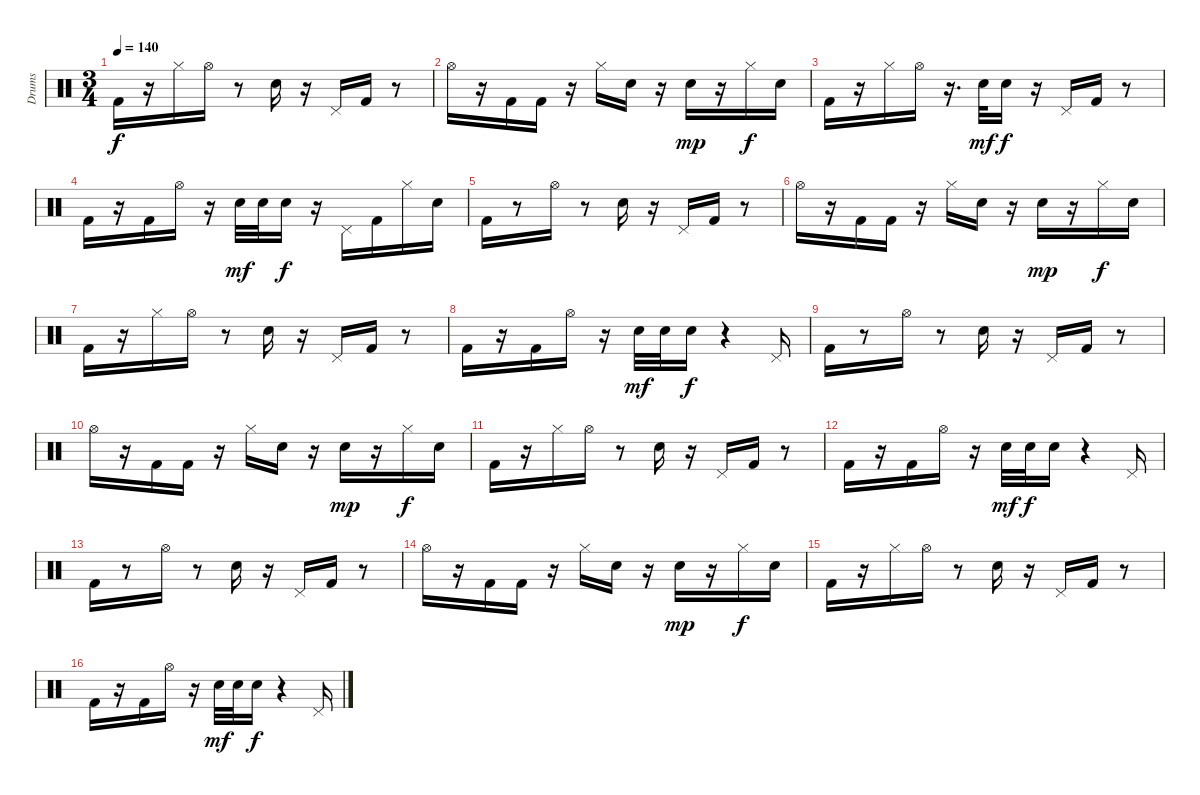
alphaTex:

\track ("Drums" "Drums") {instrument percussion}
\staff {score}
\articulation defaults
\ts (3 4)
\tempo 140
\clef neutral
\ks c "Kick (hit) 2".16{dy f}
r.16 "Hi-Hat (closed)".16 "Hi-Hat (open)".16 r.8 "Electric Snare (hit)".16 r.16 "Pedal Hi-Hat (hit)".16 "Kick (hit) 2".16 r.8 |
"Hi-Hat (open)".16 r.16 "Kick (hit) 2".16 "Kick (hit) 2".16 r.16 "Hi-Hat (closed)".16 "Electric Snare (hit)".16 r.16 "Electric Snare (hit)".16{dy mp} r.16 "Hi-Hat (closed)".16{dy f} "Electric Snare (hit)".16 |
"Kick (hit) 2".16 r.16 "Hi-Hat (closed)".16 "Hi-Hat (open)".16 r.16{d} "Electric Snare (hit)".32{dy mf} "Electric Snare (hit)".16{dy f} r.16 "Pedal Hi-Hat (hit)".16 "Kick (hit) 2".16 r.8 |
"Kick (hit) 2".16 r.16 "Kick (hit) 2".16 "Hi-Hat (open)".16 r.16 "Electric Snare (hit)".32{dy mf} "Electric Snare (hit)".32 "Electric Snare (hit)".16{dy f} r.16 "Pedal Hi-Hat (hit)".16 "Kick (hit) 2".16 "Hi-Hat (closed)".16 "Electric Snare (hit)".16 |
"Kick (hit) 2".16 r.8 "Hi-Hat (open)".16 r.8 "Electric Snare (hit)".16 r.16 "Pedal Hi-Hat (hit)".16 "Kick (hit) 2".16 r.8 |
"Hi-Hat (open)".16 r.16 "Kick (hit) 2".16 "Kick (hit) 2".16 r.16 "Hi-Hat (closed)".16 "Electric Snare (hit)".16 r.16 "Electric Snare (hit)".16{dy mp} r.16 "Hi-Hat (closed)".16{dy f} "Electric Snare (hit)".16 |
"Kick (hit) 2".16 r.16 "Hi-Hat (closed)".16 "Hi-Hat (open)".16 r.8 "Electric Snare (hit)".16 r.16 "Pedal Hi-Hat (hit)".16 "Kick (hit) 2".16 r.8 |
"Kick (hit) 2".16 r.16 "Kick (hit) 2".16 "Hi-Hat (open)".16 r.16 "Electric Snare (hit)".32{dy mf} "Electric Snare (hit)".32 "Electric Snare (hit)".16{dy f} r.4 "Pedal Hi-Hat (hit)".16 |
"Kick (hit) 2".16 r.8 "Hi-Hat (open)".16 r.8 "Electric Snare (hit)".16 r.16 "Pedal Hi-Hat (hit)".16 "Kick (hit) 2".16 r.8 |
"Hi-Hat (open)".16 r.16 "Kick (hit) 2".16 "Kick (hit) 2".16 r.16 "Hi-Hat (closed)".16 "Electric Snare (hit)".16 r.16 "Electric Snare (hit)".16{dy mp} r.16 "Hi-Hat (closed)".16{dy f} "Electric Snare (hit)".16 |
"Kick (hit) 2".16 r.16 "Hi-Hat (closed)".16 "Hi-Hat (open)".16 r.8 "Electric Snare (hit)".16 r.16 "Pedal Hi-Hat (hit)".16 "Kick (hit) 2".16 r.8 |
"Kick (hit) 2".16 r.16 "Kick (hit) 2".16 "Hi-Hat (open)".16 r.16 "Electric Snare (hit)".32{dy mf} "Electric Snare (hit)".32{dy f} "Electric Snare (hit)".16 r.4 "Pedal Hi-Hat (hit)".16 |
"Kick (hit) 2".16 r.8 "Hi-Hat (open)".16 r.8 "Electric Snare (hit)".16 r.16 "Pedal Hi-Hat (hit)".16 "Kick (hit) 2".16 r.8 |
"Hi-Hat (open)".16 r.16 "Kick (hit) 2".16 "Kick (hit) 2".16 r.16 "Hi-Hat (closed)".16 "Electric Snare (hit)".16 r.16 "Electric Snare (hit)".16{dy mp} r.16 "Hi-Hat (closed)".16{dy f} "Electric Snare (hit)".16 |
"Kick (hit) 2".16 r.16 "Hi-Hat (closed)".16 "Hi-Hat (open)".16 r.8 "Electric Snare (hit)".16 r.16 "Pedal Hi-Hat (hit)".16 "Kick (hit) 2".16 r.8 |
"Kick (hit) 2".16 r.16 "Kick (hit) 2".16 "Hi-Hat (open)".16 r.16 "Electric Snare (hit)".32{dy mf} "Electric Snare (hit)".32 "Electric Snare (hit)".16{dy f} r.4 "Pedal Hi-Hat (hit)".16
